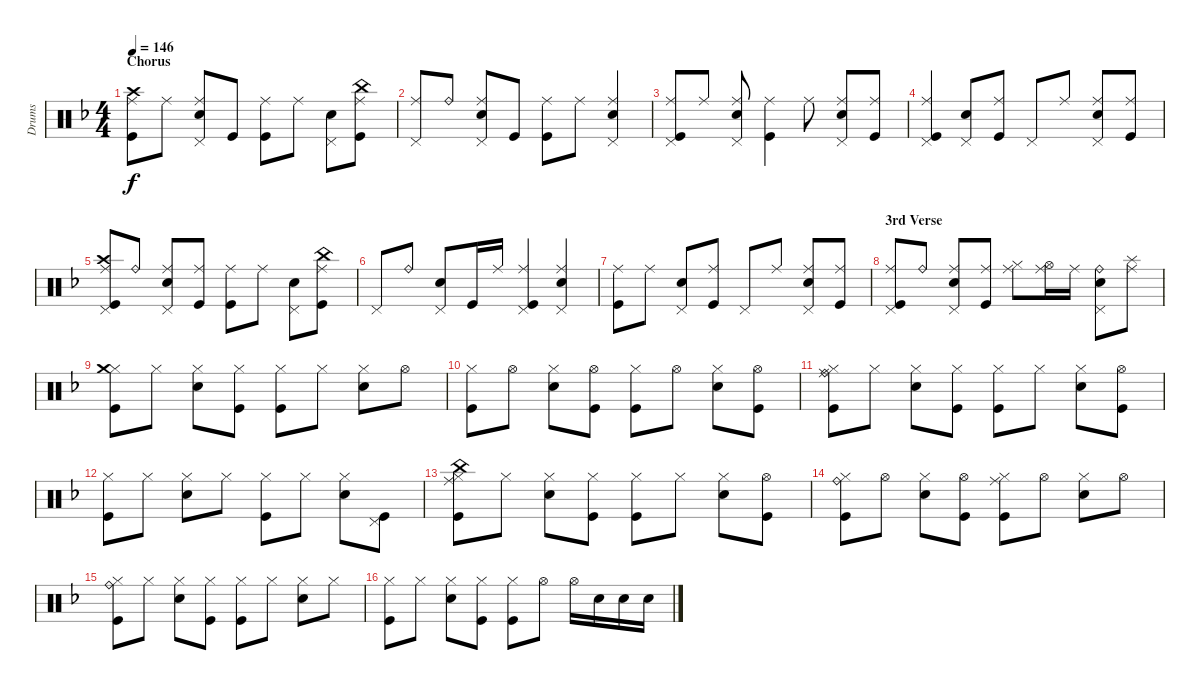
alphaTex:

\track ("Drums" "Drums") {instrument percussion}
\staff {score}
\articulation defaults
\ts (4 4)
\section ("" "Chorus")
\tempo 146
\clef neutral
\ks f
("Kick (hit)" "Crash high (hit)" "Ride (middle)").8{dy f} "Ride (middle)".8 ("Snare (hit) 2" "Pedal Hi-Hat (hit)" "Ride (middle)").8 "Kick (hit)".8 ("Kick (hit)" "Ride (middle)").8 "Ride (middle)".8 ("Snare (hit) 2" "Pedal Hi-Hat (hit)").8 ("Kick (hit)" "Ride (middle)" "China (hit)").8 |
("Pedal Hi-Hat (hit)" "Ride (middle)").8 "Ride (bell)".8 ("Pedal Hi-Hat (hit)" "Ride (middle)" "Snare (hit) 2").8 "Kick (hit)".8 ("Kick (hit)" "Ride (middle)").8 "Ride (middle)".8 ("Ride (middle)" "Snare (hit) 2" "Pedal Hi-Hat (hit)").4 |
("Pedal Hi-Hat (hit)" "Ride (middle)" "Kick (hit)").8 "Ride (middle)".8 ("Ride (middle)" "Snare (hit) 2" "Pedal Hi-Hat (hit)").8 ("Kick (hit)" "Ride (middle)").4 "Ride (middle)".8 ("Ride (middle)" "Snare (hit) 2" "Pedal Hi-Hat (hit)").8 ("Kick (hit)" "Ride (middle)").8 |
("Ride (middle)" "Kick (hit)" "Pedal Hi-Hat (hit)").4 ("Snare (hit) 2" "Pedal Hi-Hat (hit)").8 ("Kick (hit)" "Ride (middle)").8 "Pedal Hi-Hat (hit)".8 "Ride (middle)".8 ("Snare (hit) 2" "Pedal Hi-Hat (hit)" "Ride (middle)").8 ("Kick (hit)" "Ride (middle)").8 |
("Kick (hit)" "Pedal Hi-Hat (hit)" "Crash high (hit)" "Ride (middle)").8 "Ride (bell)".8 ("Snare (hit) 2" "Pedal Hi-Hat (hit)" "Ride (middle)").8 ("Kick (hit)" "Ride (middle)").8 ("Kick (hit)" "Ride (middle)").8 "Ride (middle)".8 ("Snare (hit) 2" "Pedal Hi-Hat (hit)").8 ("Kick (hit)" "Ride (middle)" "China (hit)").8 |
"Pedal Hi-Hat (hit)".8 "Ride (bell)".8 ("Snare (hit) 2" "Pedal Hi-Hat (hit)").8 "Kick (hit)".16 "Ride (middle)".16 ("Pedal Hi-Hat (hit)" "Ride (middle)" "Kick (hit)").4 ("Ride (middle)" "Snare (hit) 2" "Pedal Hi-Hat (hit)").4 |
("Kick (hit)" "Ride (middle)").8 "Ride (middle)".8 ("Snare (hit) 2" "Pedal Hi-Hat (hit)").8 ("Kick (hit)" "Ride (middle)").8 "Pedal Hi-Hat (hit)".8 "Ride (middle)".8 ("Snare (hit) 2" "Pedal Hi-Hat (hit)" "Ride (middle)").8 ("Kick (hit)" "Ride (middle)").8 |
\section ("" "3rd Verse")
("Kick (hit)" "Pedal Hi-Hat (hit)" "Ride (middle)").8 "Ride (bell)".8 ("Pedal Hi-Hat (hit)" "Ride (middle)" "Snare (hit) 2").8 ("Kick (hit)" "Ride (middle)").8 ("Hi-Hat (closed)" "Ride (middle)").8 ("Hi-Hat (open)" "Ride (middle)").16 "Ride (middle)".16 ("Snare (hit) 2" "Pedal Hi-Hat (hit)" "Ride (bell)").8 ("Ride (middle)" "Splash (hit)").8 |
("Kick (hit)" "Hi-Hat (closed)" "Crash medium (hit)").8 "Hi-Hat (closed)".8 ("Snare (hit) 2" "Hi-Hat (closed)").8 ("Kick (hit)" "Hi-Hat (closed)").8 ("Kick (hit)" "Hi-Hat (closed)").8 "Hi-Hat (closed)".8 ("Snare (hit) 2" "Hi-Hat (closed)").8 "Hi-Hat (open)".8 |
("Kick (hit)" "Hi-Hat (closed)").8 "Hi-Hat (open)".8 ("Snare (hit) 2" "Hi-Hat (closed)").8 ("Kick (hit)" "Hi-Hat (open)").8 ("Kick (hit)" "Hi-Hat (closed)").8 "Hi-Hat (open)".8 ("Snare (hit) 2" "Hi-Hat (closed)").8 ("Kick (hit)" "Hi-Hat (open)").8 |
("Kick (hit)" "Hi-Hat (closed)" "Ride (middle)" "Ride (bell)").8 "Hi-Hat (closed)".8 ("Snare (hit) 2" "Hi-Hat (closed)").8 ("Kick (hit)" "Hi-Hat (closed)").8 ("Kick (hit)" "Hi-Hat (closed)").8 "Hi-Hat (closed)".8 ("Snare (hit) 2" "Hi-Hat (closed)").8 ("Kick (hit)" "Hi-Hat (open)").8 |
("Kick (hit)" "Hi-Hat (closed)").8 "Hi-Hat (closed)".8 ("Snare (hit) 2" "Hi-Hat (closed)").8 "Hi-Hat (closed)".8 ("Kick (hit)" "Hi-Hat (closed)").8 "Hi-Hat (closed)".8 ("Snare (hit) 2" "Hi-Hat (closed)").8 ("Kick (hit)" "Pedal Hi-Hat (hit)").8 |
("Kick (hit)" "Hi-Hat (closed)" "Ride (middle)" "China (hit)").8 "Hi-Hat (closed)".8 ("Snare (hit) 2" "Hi-Hat (closed)").8 ("Kick (hit)" "Hi-Hat (closed)").8 ("Kick (hit)" "Hi-Hat (closed)").8 "Hi-Hat (closed)".8 ("Snare (hit) 2" "Hi-Hat (closed)").8 ("Kick (hit)" "Hi-Hat (open)").8 |
("Kick (hit)" "Hi-Hat (closed)" "Ride (bell)").8 "Hi-Hat (open)".8 ("Snare (hit) 2" "Hi-Hat (closed)").8 ("Kick (hit)" "Hi-Hat (open)").8 ("Ride (middle)" "Kick (hit)" "Hi-Hat (closed)").8 "Hi-Hat (open)".8 ("Snare (hit) 2" "Hi-Hat (closed)").8 "Hi-Hat (open)".8 |
("Kick (hit)" "Hi-Hat (closed)" "Ride (bell)").8 "Hi-Hat (closed)".8 ("Snare (hit) 2" "Hi-Hat (closed)").8 ("Kick (hit)" "Hi-Hat (closed)").8 ("Kick (hit)" "Hi-Hat (closed)").8 "Hi-Hat (closed)".8 ("Snare (hit) 2" "Hi-Hat (closed)").8 "Hi-Hat (closed)".8 |
("Kick (hit)" "Hi-Hat (closed)").8 "Hi-Hat (closed)".8 ("Snare (hit) 2" "Hi-Hat (closed)").8 ("Kick (hit)" "Hi-Hat (closed)").8 ("Kick (hit)" "Hi-Hat (closed)").8 "Hi-Hat (open)".8 "Hi-Hat (open)".16 "Snare (hit) 2".16 "Snare (hit) 2".16 "Snare (hit) 2".16
